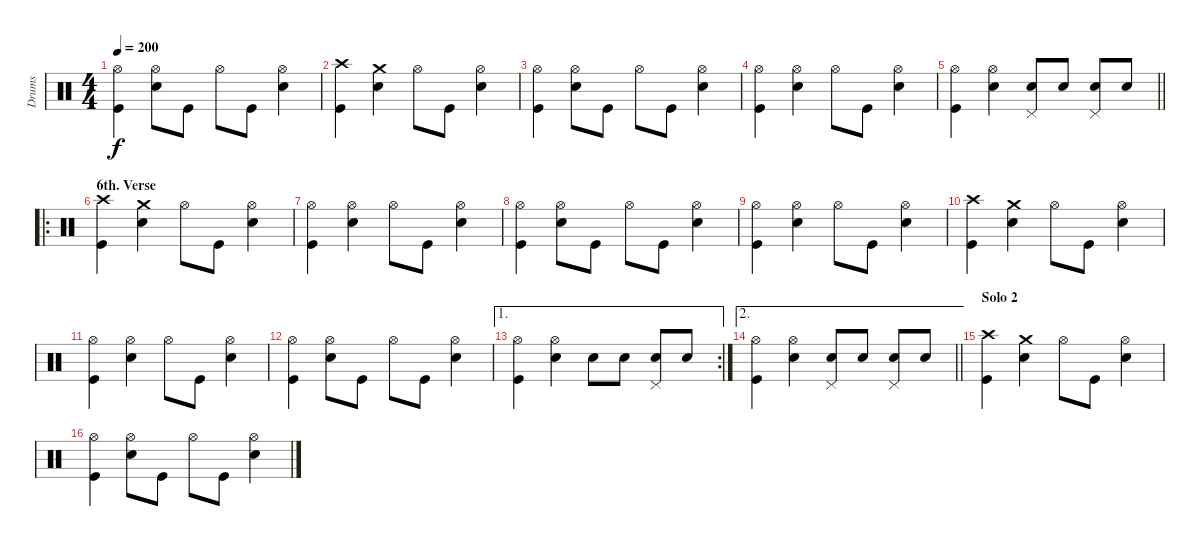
\track ("Drums" "Drums") {instrument percussion}
\staff {score}
\articulation defaults
\ts (4 4)
\tempo 200
\clef neutral
\ks c
("Hi-Hat (open)" "Kick (hit)").4{dy f} ("Hi-Hat (open)" "Electric Snare (hit)").8 "Kick (hit)".8 "Hi-Hat (open)".8 "Kick (hit)".8 ("Hi-Hat (open)" "Electric Snare (hit)").4 |
("Crash high (hit)" "Kick (hit)").4 ("Crash medium (hit)" "Electric Snare (hit)").4 "Hi-Hat (open)".8 "Kick (hit)".8 ("Hi-Hat (open)" "Electric Snare (hit)").4 |
("Hi-Hat (open)" "Kick (hit)").4 ("Hi-Hat (open)" "Electric Snare (hit)").8 "Kick (hit)".8 "Hi-Hat (open)".8 "Kick (hit)".8 ("Hi-Hat (open)" "Electric Snare (hit)").4 |
("Hi-Hat (open)" "Kick (hit)").4 ("Hi-Hat (open)" "Electric Snare (hit)").4 "Hi-Hat (open)".8 "Kick (hit)".8 ("Hi-Hat (open)" "Electric Snare (hit)").4 |
\barLineRight lightlight
("Hi-Hat (open)" "Kick (hit)").4 ("Hi-Hat (open)" "Electric Snare (hit)").4 ("Electric Snare (hit)" "Pedal Hi-Hat (hit)").8 "Electric Snare (hit)".8 ("Electric Snare (hit)" "Pedal Hi-Hat (hit)").8 "Electric Snare (hit)".8 |
\ro
\section ("" "6th. Verse")
("Crash high (hit)" "Kick (hit)").4 ("Crash medium (hit)" "Electric Snare (hit)").4 "Hi-Hat (open)".8 "Kick (hit)".8 ("Hi-Hat (open)" "Electric Snare (hit)").4 |
("Hi-Hat (open)" "Kick (hit)").4 ("Hi-Hat (open)" "Electric Snare (hit)").4 "Hi-Hat (open)".8 "Kick (hit)".8 ("Hi-Hat (open)" "Electric Snare (hit)").4 |
("Hi-Hat (open)" "Kick (hit)").4 ("Hi-Hat (open)" "Electric Snare (hit)").8 "Kick (hit)".8 "Hi-Hat (open)".8 "Kick (hit)".8 ("Hi-Hat (open)" "Electric Snare (hit)").4 |
("Hi-Hat (open)" "Kick (hit)").4 ("Hi-Hat (open)" "Electric Snare (hit)").4 "Hi-Hat (open)".8 "Kick (hit)".8 ("Hi-Hat (open)" "Electric Snare (hit)").4 |
("Crash high (hit)" "Kick (hit)").4 ("Crash medium (hit)" "Electric Snare (hit)").4 "Hi-Hat (open)".8 "Kick (hit)".8 ("Hi-Hat (open)" "Electric Snare (hit)").4 |
("Hi-Hat (open)" "Kick (hit)").4 ("Hi-Hat (open)" "Electric Snare (hit)").4 "Hi-Hat (open)".8 "Kick (hit)".8 ("Hi-Hat (open)" "Electric Snare (hit)").4 |
("Hi-Hat (open)" "Kick (hit)").4 ("Hi-Hat (open)" "Electric Snare (hit)").8 "Kick (hit)".8 "Hi-Hat (open)".8 "Kick (hit)".8 ("Hi-Hat (open)" "Electric Snare (hit)").4 |
\ae 1
\rc 2
("Hi-Hat (open)" "Kick (hit)").4 ("Hi-Hat (open)" "Electric Snare (hit)").4 "Electric Snare (hit)".8 "Electric Snare (hit)".8 ("Electric Snare (hit)" "Pedal Hi-Hat (hit)").8 "Electric Snare (hit)".8 |
\ae 2
\barLineRight lightlight
("Hi-Hat (open)" "Kick (hit)").4 ("Hi-Hat (open)" "Electric Snare (hit)").4 ("Electric Snare (hit)" "Pedal Hi-Hat (hit)").8 "Electric Snare (hit)".8 ("Electric Snare (hit)" "Pedal Hi-Hat (hit)").8 "Electric Snare (hit)".8 |
\section ("" "Solo 2")
("Crash high (hit)" "Kick (hit)").4 ("Crash medium (hit)" "Electric Snare (hit)").4 "Hi-Hat (open)".8 "Kick (hit)".8 ("Hi-Hat (open)" "Electric Snare (hit)").4 |
("Hi-Hat (open)" "Kick (hit)").4 ("Hi-Hat (open)" "Electric Snare (hit)").8 "Kick (hit)".8 "Hi-Hat (open)".8 "Kick (hit)".8 ("Hi-Hat (open)" "Electric Snare (hit)").4
